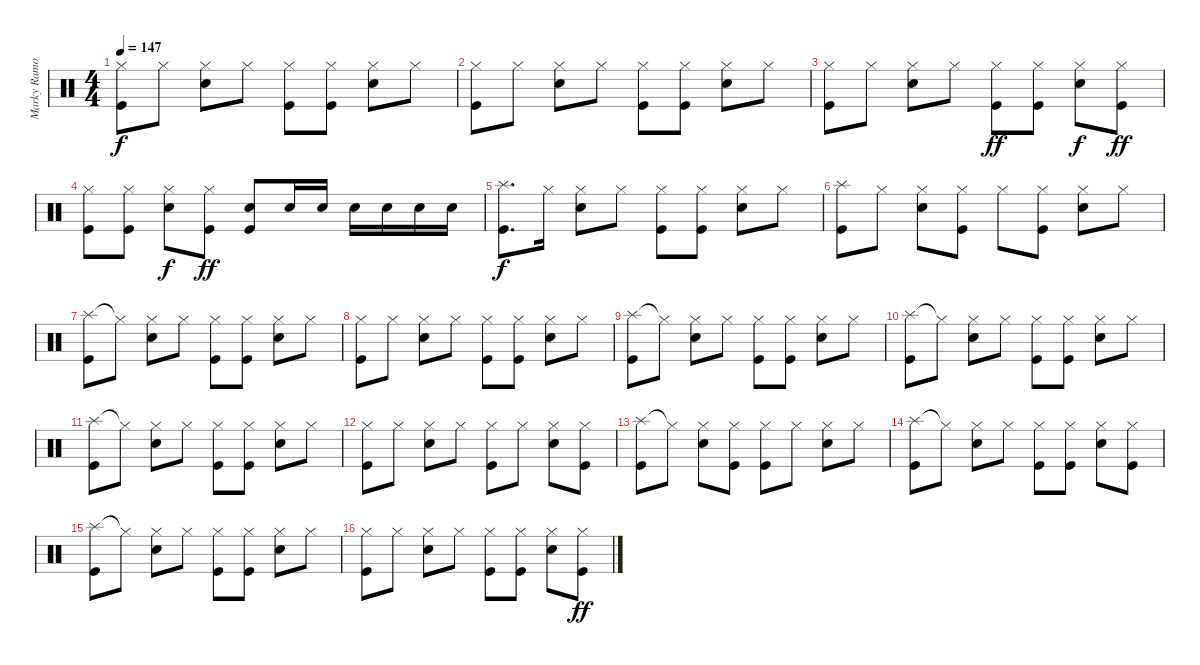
\track ("Marky Ramone - Drums" "Marky Ramo") {instrument percussion}
\staff {score}
\articulation defaults
\ts (4 4)
\tempo 147
\clef neutral
\ks c
("Hi-Hat (closed)" "Kick (hit)").8{dy f} "Hi-Hat (closed)".8 ("Hi-Hat (closed)" "Snare (hit) 2").8 "Hi-Hat (closed)".8 ("Hi-Hat (closed)" "Kick (hit)").8 ("Hi-Hat (closed)" "Kick (hit)").8 ("Hi-Hat (closed)" "Snare (hit) 2").8 "Hi-Hat (closed)".8 |
("Hi-Hat (closed)" "Kick (hit)").8 "Hi-Hat (closed)".8 ("Hi-Hat (closed)" "Snare (hit) 2").8 "Hi-Hat (closed)".8 ("Hi-Hat (closed)" "Kick (hit)").8 ("Hi-Hat (closed)" "Kick (hit)").8 ("Hi-Hat (closed)" "Snare (hit) 2").8 "Hi-Hat (closed)".8 |
("Hi-Hat (closed)" "Kick (hit)").8 "Hi-Hat (closed)".8 ("Hi-Hat (closed)" "Snare (hit) 2").8 "Hi-Hat (closed)".8 ("Hi-Hat (closed)" "Kick (hit)").8{dy ff} ("Hi-Hat (closed)" "Kick (hit)").8 ("Hi-Hat (closed)" "Snare (hit) 2").8{dy f} ("Hi-Hat (closed)" "Kick (hit)").8{dy ff} |
("Hi-Hat (closed)" "Kick (hit)").8 ("Hi-Hat (closed)" "Kick (hit)").8 ("Hi-Hat (closed)" "Snare (hit) 2").8{dy f} ("Hi-Hat (closed)" "Kick (hit)").8{dy ff} ("Snare (hit) 2" "Kick (hit)").8 "Snare (hit) 2".16 "Snare (hit) 2".16 "Snare (hit) 2".16 "Snare (hit) 2".16 "Snare (hit) 2".16 "Snare (hit) 2".16 |
("Splash (hit)" "Kick (hit)").8{d dy f} "Hi-Hat (closed)".16 ("Hi-Hat (closed)" "Snare (hit) 2").8 "Hi-Hat (closed)".8 ("Hi-Hat (closed)" "Kick (hit)").8 ("Hi-Hat (closed)" "Kick (hit)").8 ("Hi-Hat (closed)" "Snare (hit) 2").8 "Hi-Hat (closed)".8 |
("Splash (hit)" "Kick (hit)").8 "Hi-Hat (closed)".8 ("Hi-Hat (closed)" "Snare (hit) 2").8 ("Hi-Hat (closed)" "Kick (hit)").8 "Hi-Hat (closed)".8 ("Hi-Hat (closed)" "Kick (hit)").8 ("Hi-Hat (closed)" "Snare (hit) 2").8 "Hi-Hat (closed)".8 |
("Splash (hit)" "Kick (hit)").8 "Hi-Hat (closed)"{t}.8 ("Hi-Hat (closed)" "Snare (hit) 2").8 "Hi-Hat (closed)".8 ("Hi-Hat (closed)" "Kick (hit)").8 ("Hi-Hat (closed)" "Kick (hit)").8 ("Hi-Hat (closed)" "Snare (hit) 2").8 "Hi-Hat (closed)".8 |
("Hi-Hat (closed)" "Kick (hit)").8 "Hi-Hat (closed)".8 ("Hi-Hat (closed)" "Snare (hit) 2").8 "Hi-Hat (closed)".8 ("Hi-Hat (closed)" "Kick (hit)").8 ("Hi-Hat (closed)" "Kick (hit)").8 ("Hi-Hat (closed)" "Snare (hit) 2").8 "Hi-Hat (closed)".8 |
("Splash (hit)" "Kick (hit)").8 "Hi-Hat (closed)"{t}.8 ("Hi-Hat (closed)" "Snare (hit) 2").8 "Hi-Hat (closed)".8 ("Hi-Hat (closed)" "Kick (hit)").8 ("Hi-Hat (closed)" "Kick (hit)").8 ("Hi-Hat (closed)" "Snare (hit) 2").8 "Hi-Hat (closed)".8 |
("Splash (hit)" "Kick (hit)").8 "Hi-Hat (closed)"{t}.8 ("Hi-Hat (closed)" "Snare (hit) 2").8 "Hi-Hat (closed)".8 ("Hi-Hat (closed)" "Kick (hit)").8 ("Hi-Hat (closed)" "Kick (hit)").8 ("Hi-Hat (closed)" "Snare (hit) 2").8 "Hi-Hat (closed)".8 |
("Splash (hit)" "Kick (hit)").8 "Hi-Hat (closed)"{t}.8 ("Hi-Hat (closed)" "Snare (hit) 2").8 "Hi-Hat (closed)".8 ("Hi-Hat (closed)" "Kick (hit)").8 ("Hi-Hat (closed)" "Kick (hit)").8 ("Hi-Hat (closed)" "Snare (hit) 2").8 "Hi-Hat (closed)".8 |
("Hi-Hat (closed)" "Kick (hit)").8 "Hi-Hat (closed)".8 ("Hi-Hat (closed)" "Snare (hit) 2").8 "Hi-Hat (closed)".8 ("Hi-Hat (closed)" "Kick (hit)").8 "Hi-Hat (closed)".8 ("Hi-Hat (closed)" "Snare (hit) 2").8 ("Hi-Hat (closed)" "Kick (hit)").8 |
("Splash (hit)" "Kick (hit)").8 "Hi-Hat (closed)"{t}.8 ("Hi-Hat (closed)" "Snare (hit) 2").8 ("Hi-Hat (closed)" "Kick (hit)").8 ("Hi-Hat (closed)" "Kick (hit)").8 "Hi-Hat (closed)".8 ("Hi-Hat (closed)" "Snare (hit) 2").8 "Hi-Hat (closed)".8 |
("Splash (hit)" "Kick (hit)").8 "Hi-Hat (closed)"{t}.8 ("Hi-Hat (closed)" "Snare (hit) 2").8 "Hi-Hat (closed)".8 ("Hi-Hat (closed)" "Kick (hit)").8 ("Hi-Hat (closed)" "Kick (hit)").8 ("Hi-Hat (closed)" "Snare (hit) 2").8 ("Hi-Hat (closed)" "Kick (hit)").8 |
("Splash (hit)" "Kick (hit)").8 "Hi-Hat (closed)"{t}.8 ("Hi-Hat (closed)" "Snare (hit) 2").8 "Hi-Hat (closed)".8 ("Hi-Hat (closed)" "Kick (hit)").8 ("Hi-Hat (closed)" "Kick (hit)").8 ("Hi-Hat (closed)" "Snare (hit) 2").8 "Hi-Hat (closed)".8 |
("Hi-Hat (closed)" "Kick (hit)").8 "Hi-Hat (closed)".8 ("Hi-Hat (closed)" "Snare (hit) 2").8 "Hi-Hat (closed)".8 ("Hi-Hat (closed)" "Kick (hit)").8 ("Hi-Hat (closed)" "Kick (hit)").8 ("Hi-Hat (closed)" "Snare (hit) 2").8 ("Hi-Hat (closed)" "Kick (hit)").8{dy ff}
